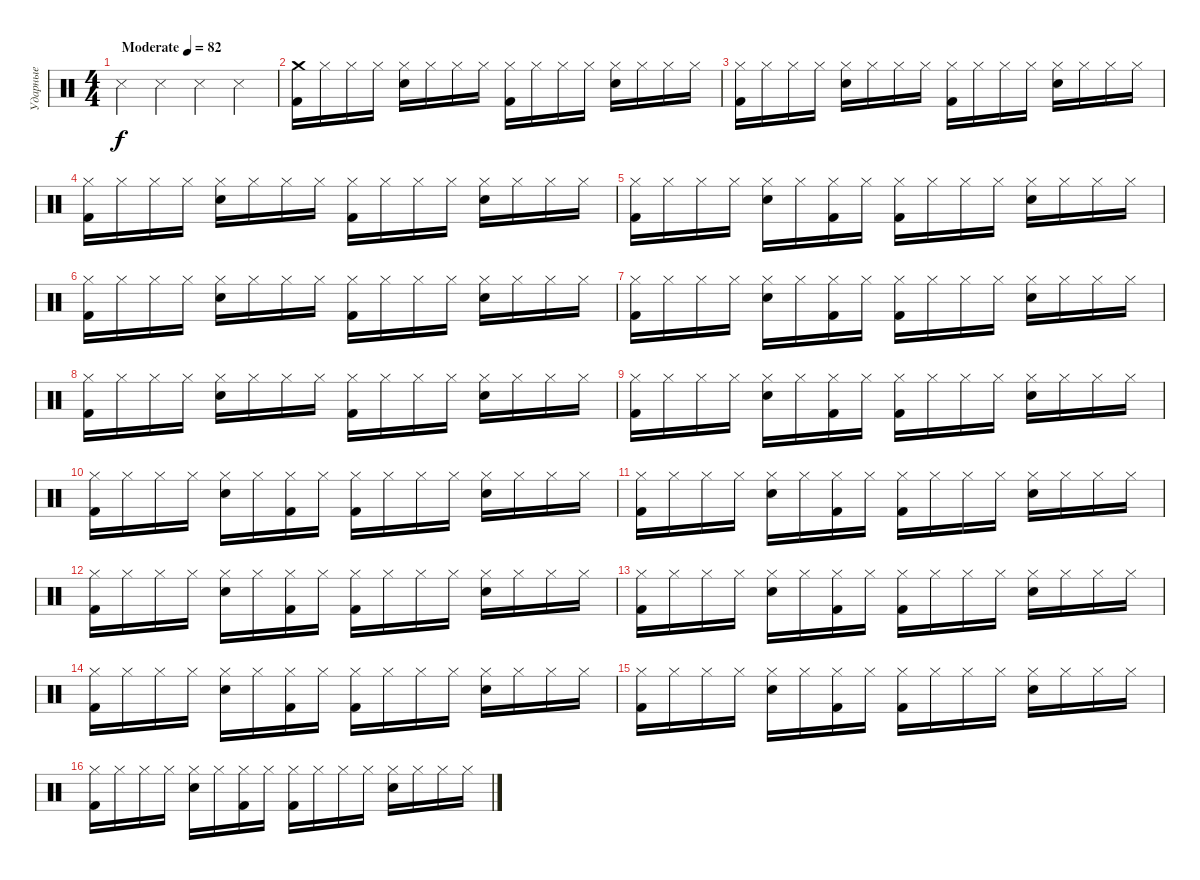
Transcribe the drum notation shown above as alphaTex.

\track ("Ударные" "Ударные") {instrument percussion}
\staff {score}
\articulation defaults
\ts (4 4)
\tempo (82 "Moderate")
\clef neutral
\ks c "Snare (side stick) 3".4{dy f} "Snare (side stick) 3".4 "Snare (side stick) 3".4 "Snare (side stick) 3".4
|
("Crash medium (hit)" "Kick (hit) 2").16 "Hi-Hat (closed)".16 "Hi-Hat (closed)".16 "Hi-Hat (closed)".16 ("Hi-Hat (closed)" "Electric Snare (hit)").16 "Hi-Hat (closed)".16 "Hi-Hat (closed)".16 "Hi-Hat (closed)".16 ("Hi-Hat (closed)" "Kick (hit) 2").16 "Hi-Hat (closed)".16 "Hi-Hat (closed)".16 "Hi-Hat (closed)".16 ("Hi-Hat (closed)" "Electric Snare (hit)").16 "Hi-Hat (closed)".16 "Hi-Hat (closed)".16 "Hi-Hat (closed)".16 |
("Hi-Hat (closed)" "Kick (hit) 2").16 "Hi-Hat (closed)".16 "Hi-Hat (closed)".16 "Hi-Hat (closed)".16 ("Hi-Hat (closed)" "Electric Snare (hit)").16 "Hi-Hat (closed)".16 "Hi-Hat (closed)".16 "Hi-Hat (closed)".16 ("Hi-Hat (closed)" "Kick (hit) 2").16 "Hi-Hat (closed)".16 "Hi-Hat (closed)".16 "Hi-Hat (closed)".16 ("Hi-Hat (closed)" "Electric Snare (hit)").16 "Hi-Hat (closed)".16 "Hi-Hat (closed)".16 "Hi-Hat (closed)".16 |
("Hi-Hat (closed)" "Kick (hit) 2").16 "Hi-Hat (closed)".16 "Hi-Hat (closed)".16 "Hi-Hat (closed)".16 ("Hi-Hat (closed)" "Electric Snare (hit)").16 "Hi-Hat (closed)".16 "Hi-Hat (closed)".16 "Hi-Hat (closed)".16 ("Hi-Hat (closed)" "Kick (hit) 2").16 "Hi-Hat (closed)".16 "Hi-Hat (closed)".16 "Hi-Hat (closed)".16 ("Hi-Hat (closed)" "Electric Snare (hit)").16 "Hi-Hat (closed)".16 "Hi-Hat (closed)".16 "Hi-Hat (closed)".16 |
("Hi-Hat (closed)" "Kick (hit) 2").16 "Hi-Hat (closed)".16 "Hi-Hat (closed)".16 "Hi-Hat (closed)".16 ("Hi-Hat (closed)" "Electric Snare (hit)").16 "Hi-Hat (closed)".16 ("Hi-Hat (closed)" "Kick (hit) 2").16 "Hi-Hat (closed)".16 ("Hi-Hat (closed)" "Kick (hit) 2").16 "Hi-Hat (closed)".16 "Hi-Hat (closed)".16 "Hi-Hat (closed)".16 ("Hi-Hat (closed)" "Electric Snare (hit)").16 "Hi-Hat (closed)".16 "Hi-Hat (closed)".16 "Hi-Hat (closed)".16 |
("Hi-Hat (closed)" "Kick (hit) 2").16 "Hi-Hat (closed)".16 "Hi-Hat (closed)".16 "Hi-Hat (closed)".16 ("Hi-Hat (closed)" "Electric Snare (hit)").16 "Hi-Hat (closed)".16 "Hi-Hat (closed)".16 "Hi-Hat (closed)".16 ("Hi-Hat (closed)" "Kick (hit) 2").16 "Hi-Hat (closed)".16 "Hi-Hat (closed)".16 "Hi-Hat (closed)".16 ("Hi-Hat (closed)" "Electric Snare (hit)").16 "Hi-Hat (closed)".16 "Hi-Hat (closed)".16 "Hi-Hat (closed)".16 |
("Hi-Hat (closed)" "Kick (hit) 2").16 "Hi-Hat (closed)".16 "Hi-Hat (closed)".16 "Hi-Hat (closed)".16 ("Hi-Hat (closed)" "Electric Snare (hit)").16 "Hi-Hat (closed)".16 ("Hi-Hat (closed)" "Kick (hit) 2").16 "Hi-Hat (closed)".16 ("Hi-Hat (closed)" "Kick (hit) 2").16 "Hi-Hat (closed)".16 "Hi-Hat (closed)".16 "Hi-Hat (closed)".16 ("Hi-Hat (closed)" "Electric Snare (hit)").16 "Hi-Hat (closed)".16 "Hi-Hat (closed)".16 "Hi-Hat (closed)".16 |
("Hi-Hat (closed)" "Kick (hit) 2").16 "Hi-Hat (closed)".16 "Hi-Hat (closed)".16 "Hi-Hat (closed)".16 ("Hi-Hat (closed)" "Electric Snare (hit)").16 "Hi-Hat (closed)".16 "Hi-Hat (closed)".16 "Hi-Hat (closed)".16 ("Hi-Hat (closed)" "Kick (hit) 2").16 "Hi-Hat (closed)".16 "Hi-Hat (closed)".16 "Hi-Hat (closed)".16 ("Hi-Hat (closed)" "Electric Snare (hit)").16 "Hi-Hat (closed)".16 "Hi-Hat (closed)".16 "Hi-Hat (closed)".16 |
("Hi-Hat (closed)" "Kick (hit) 2").16 "Hi-Hat (closed)".16 "Hi-Hat (closed)".16 "Hi-Hat (closed)".16 ("Hi-Hat (closed)" "Electric Snare (hit)").16 "Hi-Hat (closed)".16 ("Hi-Hat (closed)" "Kick (hit) 2").16 "Hi-Hat (closed)".16 ("Hi-Hat (closed)" "Kick (hit) 2").16 "Hi-Hat (closed)".16 "Hi-Hat (closed)".16 "Hi-Hat (closed)".16 ("Hi-Hat (closed)" "Electric Snare (hit)").16 "Hi-Hat (closed)".16 "Hi-Hat (closed)".16 "Hi-Hat (closed)".16 |
("Hi-Hat (closed)" "Kick (hit) 2").16 "Hi-Hat (closed)".16 "Hi-Hat (closed)".16 "Hi-Hat (closed)".16 ("Hi-Hat (closed)" "Electric Snare (hit)").16 "Hi-Hat (closed)".16 ("Hi-Hat (closed)" "Kick (hit) 2").16 "Hi-Hat (closed)".16 ("Hi-Hat (closed)" "Kick (hit) 2").16 "Hi-Hat (closed)".16 "Hi-Hat (closed)".16 "Hi-Hat (closed)".16 ("Hi-Hat (closed)" "Electric Snare (hit)").16 "Hi-Hat (closed)".16 "Hi-Hat (closed)".16 "Hi-Hat (closed)".16 |
("Hi-Hat (closed)" "Kick (hit) 2").16 "Hi-Hat (closed)".16 "Hi-Hat (closed)".16 "Hi-Hat (closed)".16 ("Hi-Hat (closed)" "Electric Snare (hit)").16 "Hi-Hat (closed)".16 ("Hi-Hat (closed)" "Kick (hit) 2").16 "Hi-Hat (closed)".16 ("Hi-Hat (closed)" "Kick (hit) 2").16 "Hi-Hat (closed)".16 "Hi-Hat (closed)".16 "Hi-Hat (closed)".16 ("Hi-Hat (closed)" "Electric Snare (hit)").16 "Hi-Hat (closed)".16 "Hi-Hat (closed)".16 "Hi-Hat (closed)".16 |
("Hi-Hat (closed)" "Kick (hit) 2").16 "Hi-Hat (closed)".16 "Hi-Hat (closed)".16 "Hi-Hat (closed)".16 ("Hi-Hat (closed)" "Electric Snare (hit)").16 "Hi-Hat (closed)".16 ("Hi-Hat (closed)" "Kick (hit) 2").16 "Hi-Hat (closed)".16 ("Hi-Hat (closed)" "Kick (hit) 2").16 "Hi-Hat (closed)".16 "Hi-Hat (closed)".16 "Hi-Hat (closed)".16 ("Hi-Hat (closed)" "Electric Snare (hit)").16 "Hi-Hat (closed)".16 "Hi-Hat (closed)".16 "Hi-Hat (closed)".16 |
("Hi-Hat (closed)" "Kick (hit) 2").16 "Hi-Hat (closed)".16 "Hi-Hat (closed)".16 "Hi-Hat (closed)".16 ("Hi-Hat (closed)" "Electric Snare (hit)").16 "Hi-Hat (closed)".16 ("Hi-Hat (closed)" "Kick (hit) 2").16 "Hi-Hat (closed)".16 ("Hi-Hat (closed)" "Kick (hit) 2").16 "Hi-Hat (closed)".16 "Hi-Hat (closed)".16 "Hi-Hat (closed)".16 ("Hi-Hat (closed)" "Electric Snare (hit)").16 "Hi-Hat (closed)".16 "Hi-Hat (closed)".16 "Hi-Hat (closed)".16 |
("Hi-Hat (closed)" "Kick (hit) 2").16 "Hi-Hat (closed)".16 "Hi-Hat (closed)".16 "Hi-Hat (closed)".16 ("Hi-Hat (closed)" "Electric Snare (hit)").16 "Hi-Hat (closed)".16 ("Hi-Hat (closed)" "Kick (hit) 2").16 "Hi-Hat (closed)".16 ("Hi-Hat (closed)" "Kick (hit) 2").16 "Hi-Hat (closed)".16 "Hi-Hat (closed)".16 "Hi-Hat (closed)".16 ("Hi-Hat (closed)" "Electric Snare (hit)").16 "Hi-Hat (closed)".16 "Hi-Hat (closed)".16 "Hi-Hat (closed)".16 |
("Hi-Hat (closed)" "Kick (hit) 2").16 "Hi-Hat (closed)".16 "Hi-Hat (closed)".16 "Hi-Hat (closed)".16 ("Hi-Hat (closed)" "Electric Snare (hit)").16 "Hi-Hat (closed)".16 ("Hi-Hat (closed)" "Kick (hit) 2").16 "Hi-Hat (closed)".16 ("Hi-Hat (closed)" "Kick (hit) 2").16 "Hi-Hat (closed)".16 "Hi-Hat (closed)".16 "Hi-Hat (closed)".16 ("Hi-Hat (closed)" "Electric Snare (hit)").16 "Hi-Hat (closed)".16 "Hi-Hat (closed)".16 "Hi-Hat (closed)".16 |
("Hi-Hat (closed)" "Kick (hit) 2").16 "Hi-Hat (closed)".16 "Hi-Hat (closed)".16 "Hi-Hat (closed)".16 ("Hi-Hat (closed)" "Electric Snare (hit)").16 "Hi-Hat (closed)".16 ("Hi-Hat (closed)" "Kick (hit) 2").16 "Hi-Hat (closed)".16 ("Hi-Hat (closed)" "Kick (hit) 2").16 "Hi-Hat (closed)".16 "Hi-Hat (closed)".16 "Hi-Hat (closed)".16 ("Hi-Hat (closed)" "Electric Snare (hit)").16 "Hi-Hat (closed)".16 "Hi-Hat (closed)".16 "Hi-Hat (closed)".16
